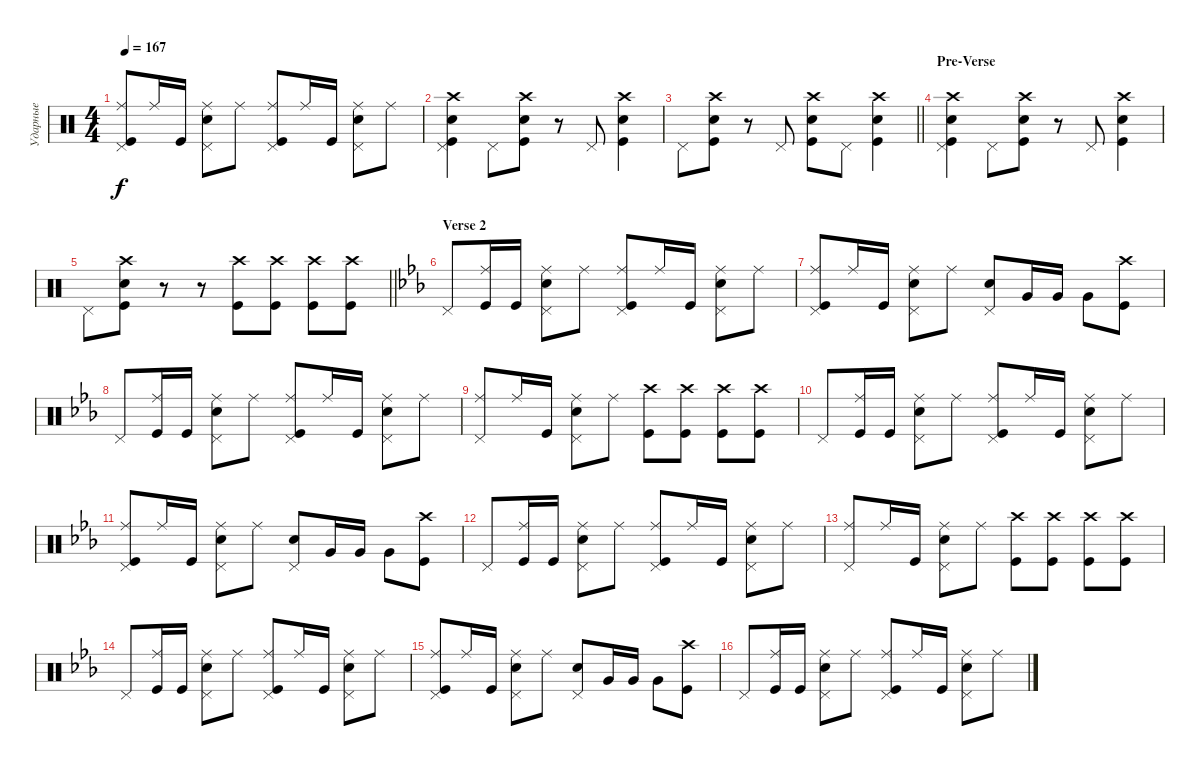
\track ("Ударные" "Ударные") {instrument percussion}
\staff {score}
\articulation defaults
\ts (4 4)
\tempo 167
\clef neutral
\ks aminor
("Kick (hit)" "Ride (middle)" "Pedal Hi-Hat (hit)").8{dy f} "Ride (middle)".16 "Kick (hit)".16 ("Snare (hit) 2" "Ride (middle)" "Pedal Hi-Hat (hit)").8 "Ride (middle)".8 ("Ride (middle)" "Kick (hit)" "Pedal Hi-Hat (hit)").8 "Ride (middle)".16 "Kick (hit)".16 ("Snare (hit) 2" "Ride (middle)" "Pedal Hi-Hat (hit)").8 "Ride (middle)".8 |
("Snare (hit) 2" "Crash high (hit)" "Kick (hit)" "Pedal Hi-Hat (hit)").4 "Pedal Hi-Hat (hit)".8 ("Crash high (hit)" "Kick (hit)" "Snare (hit) 2").8 r.8 "Pedal Hi-Hat (hit)".8 ("Crash high (hit)" "Snare (hit) 2" "Kick (hit)").4 |
\barLineRight lightlight "Pedal Hi-Hat (hit)".8
("Crash high (hit)" "Kick (hit)" "Snare (hit) 2").8 r.8 "Pedal Hi-Hat (hit)".8 ("Kick (hit)" "Snare (hit) 2" "Crash high (hit)").8 "Pedal Hi-Hat (hit)".8 ("Kick (hit)" "Snare (hit) 2" "Crash high (hit)").4 |
\section ("" "Pre-Verse")
("Snare (hit) 2" "Crash high (hit)" "Kick (hit)" "Pedal Hi-Hat (hit)").4 "Pedal Hi-Hat (hit)".8 ("Crash high (hit)" "Kick (hit)" "Snare (hit) 2").8 r.8 "Pedal Hi-Hat (hit)".8 ("Crash high (hit)" "Snare (hit) 2" "Kick (hit)").4 |
\barLineRight lightlight "Pedal Hi-Hat (hit)".8
("Crash high (hit)" "Kick (hit)" "Snare (hit) 2").8 r.8 r.8 ("Kick (hit)" "Crash high (hit)").8 ("Kick (hit)" "Crash high (hit)").8 ("Kick (hit)" "Crash high (hit)").8 ("Kick (hit)" "Crash high (hit)").8 |
\section ("" "Verse 2")
\ks cminor "Pedal Hi-Hat (hit)".8
("Ride (middle)" "Kick (hit)").16 "Kick (hit)".16 ("Ride (middle)" "Snare (hit) 2" "Pedal Hi-Hat (hit)").8 "Ride (middle)".8 ("Ride (middle)" "Kick (hit)" "Pedal Hi-Hat (hit)").8 "Ride (middle)".16 "Kick (hit)".16 ("Ride (middle)" "Snare (hit) 2" "Pedal Hi-Hat (hit)").8 "Ride (middle)".8 |
("Ride (middle)" "Kick (hit)" "Pedal Hi-Hat (hit)").8 "Ride (middle)".16 "Kick (hit)".16 ("Ride (middle)" "Snare (hit) 2" "Pedal Hi-Hat (hit)").8 "Ride (middle)".8 ("Pedal Hi-Hat (hit)" "Snare (hit) 2").8 "Very Low Tom (hit)".16 "Very Low Tom (hit)".16 "Very Low Tom (hit)".8 ("Crash high (hit)" "Kick (hit)").8 |
"Pedal Hi-Hat (hit)".8 ("Ride (middle)" "Kick (hit)").16 "Kick (hit)".16 ("Ride (middle)" "Snare (hit) 2" "Pedal Hi-Hat (hit)").8 "Ride (middle)".8 ("Ride (middle)" "Kick (hit)" "Pedal Hi-Hat (hit)").8 "Ride (middle)".16 "Kick (hit)".16 ("Ride (middle)" "Snare (hit) 2" "Pedal Hi-Hat (hit)").8 "Ride (middle)".8 |
("Pedal Hi-Hat (hit)" "Ride (middle)").8 "Ride (middle)".16 "Kick (hit)".16 ("Ride (middle)" "Snare (hit) 2" "Pedal Hi-Hat (hit)").8 "Ride (middle)".8 ("Kick (hit)" "Crash high (hit)").8 ("Crash high (hit)" "Kick (hit)").8 ("Crash high (hit)" "Kick (hit)").8 ("Crash high (hit)" "Kick (hit)").8 |
"Pedal Hi-Hat (hit)".8 ("Ride (middle)" "Kick (hit)").16 "Kick (hit)".16 ("Ride (middle)" "Snare (hit) 2" "Pedal Hi-Hat (hit)").8 "Ride (middle)".8 ("Ride (middle)" "Kick (hit)" "Pedal Hi-Hat (hit)").8 "Ride (middle)".16 "Kick (hit)".16 ("Ride (middle)" "Snare (hit) 2" "Pedal Hi-Hat (hit)").8 "Ride (middle)".8 |
("Ride (middle)" "Kick (hit)" "Pedal Hi-Hat (hit)").8 "Ride (middle)".16 "Kick (hit)".16 ("Ride (middle)" "Snare (hit) 2" "Pedal Hi-Hat (hit)").8 "Ride (middle)".8 ("Pedal Hi-Hat (hit)" "Snare (hit) 2").8 "Very Low Tom (hit)".16 "Very Low Tom (hit)".16 "Very Low Tom (hit)".8 ("Crash high (hit)" "Kick (hit)").8 |
"Pedal Hi-Hat (hit)".8 ("Ride (middle)" "Kick (hit)").16 "Kick (hit)".16 ("Ride (middle)" "Snare (hit) 2" "Pedal Hi-Hat (hit)").8 "Ride (middle)".8 ("Ride (middle)" "Kick (hit)" "Pedal Hi-Hat (hit)").8 "Ride (middle)".16 "Kick (hit)".16 ("Ride (middle)" "Snare (hit) 2" "Pedal Hi-Hat (hit)").8 "Ride (middle)".8 |
("Pedal Hi-Hat (hit)" "Ride (middle)").8 "Ride (middle)".16 "Kick (hit)".16 ("Ride (middle)" "Snare (hit) 2" "Pedal Hi-Hat (hit)").8 "Ride (middle)".8 ("Kick (hit)" "Crash high (hit)").8 ("Crash high (hit)" "Kick (hit)").8 ("Crash high (hit)" "Kick (hit)").8 ("Crash high (hit)" "Kick (hit)").8 |
"Pedal Hi-Hat (hit)".8 ("Ride (middle)" "Kick (hit)").16 "Kick (hit)".16 ("Ride (middle)" "Snare (hit) 2" "Pedal Hi-Hat (hit)").8 "Ride (middle)".8 ("Ride (middle)" "Kick (hit)" "Pedal Hi-Hat (hit)").8 "Ride (middle)".16 "Kick (hit)".16 ("Ride (middle)" "Snare (hit) 2" "Pedal Hi-Hat (hit)").8 "Ride (middle)".8 |
("Ride (middle)" "Kick (hit)" "Pedal Hi-Hat (hit)").8 "Ride (middle)".16 "Kick (hit)".16 ("Ride (middle)" "Snare (hit) 2" "Pedal Hi-Hat (hit)").8 "Ride (middle)".8 ("Pedal Hi-Hat (hit)" "Snare (hit) 2").8 "Very Low Tom (hit)".16 "Very Low Tom (hit)".16 "Very Low Tom (hit)".8 ("Crash high (hit)" "Kick (hit)").8 |
"Pedal Hi-Hat (hit)".8 ("Ride (middle)" "Kick (hit)").16 "Kick (hit)".16 ("Ride (middle)" "Snare (hit) 2" "Pedal Hi-Hat (hit)").8 "Ride (middle)".8 ("Ride (middle)" "Kick (hit)" "Pedal Hi-Hat (hit)").8 "Ride (middle)".16 "Kick (hit)".16 ("Ride (middle)" "Snare (hit) 2" "Pedal Hi-Hat (hit)").8 "Ride (middle)".8
